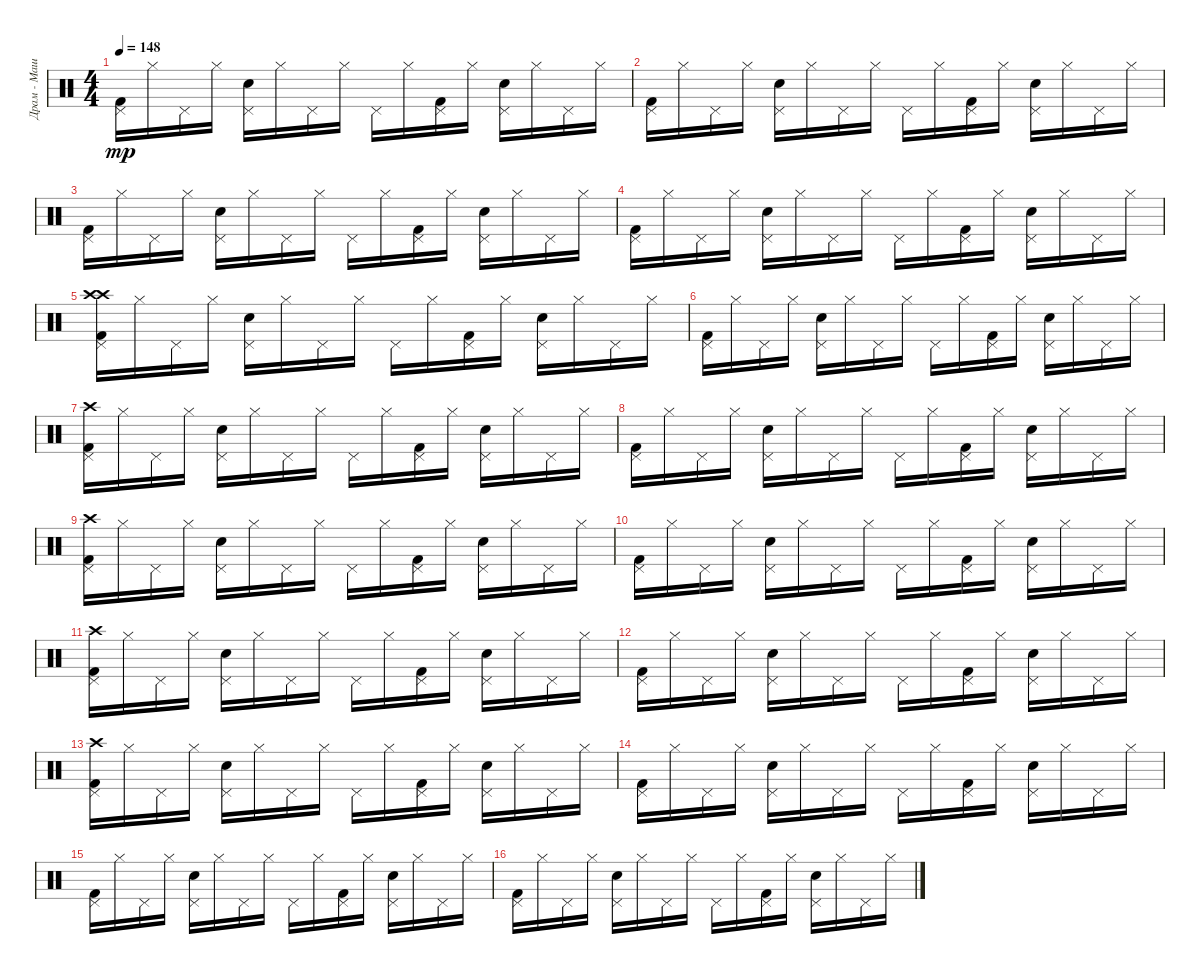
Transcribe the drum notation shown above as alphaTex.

\track ("Драм - Машина 2" "Драм - Маш") {instrument percussion}
\staff {score}
\articulation defaults
\ts (4 4)
\tempo 148
\clef neutral
\ks c
("Kick (hit) 2" "Pedal Hi-Hat (hit)").16{dy mp} "Hi-Hat (closed)".16 "Pedal Hi-Hat (hit)".16 "Hi-Hat (closed)".16 ("Snare (hit) 2" "Pedal Hi-Hat (hit)").16 "Hi-Hat (closed)".16 "Pedal Hi-Hat (hit)".16 "Hi-Hat (closed)".16 "Pedal Hi-Hat (hit)".16 "Hi-Hat (closed)".16 ("Kick (hit) 2" "Pedal Hi-Hat (hit)").16 "Hi-Hat (closed)".16 ("Snare (hit) 2" "Pedal Hi-Hat (hit)").16 "Hi-Hat (closed)".16 "Pedal Hi-Hat (hit)".16 "Hi-Hat (closed)".16 |
("Kick (hit) 2" "Pedal Hi-Hat (hit)").16 "Hi-Hat (closed)".16 "Pedal Hi-Hat (hit)".16 "Hi-Hat (closed)".16 ("Snare (hit) 2" "Pedal Hi-Hat (hit)").16 "Hi-Hat (closed)".16 "Pedal Hi-Hat (hit)".16 "Hi-Hat (closed)".16 "Pedal Hi-Hat (hit)".16 "Hi-Hat (closed)".16 ("Kick (hit) 2" "Pedal Hi-Hat (hit)").16 "Hi-Hat (closed)".16 ("Snare (hit) 2" "Pedal Hi-Hat (hit)").16 "Hi-Hat (closed)".16 "Pedal Hi-Hat (hit)".16 "Hi-Hat (closed)".16 |
("Kick (hit) 2" "Pedal Hi-Hat (hit)").16 "Hi-Hat (closed)".16 "Pedal Hi-Hat (hit)".16 "Hi-Hat (closed)".16 ("Snare (hit) 2" "Pedal Hi-Hat (hit)").16 "Hi-Hat (closed)".16 "Pedal Hi-Hat (hit)".16 "Hi-Hat (closed)".16 "Pedal Hi-Hat (hit)".16 "Hi-Hat (closed)".16 ("Kick (hit) 2" "Pedal Hi-Hat (hit)").16 "Hi-Hat (closed)".16 ("Snare (hit) 2" "Pedal Hi-Hat (hit)").16 "Hi-Hat (closed)".16 "Pedal Hi-Hat (hit)".16 "Hi-Hat (closed)".16 |
("Kick (hit) 2" "Pedal Hi-Hat (hit)").16 "Hi-Hat (closed)".16 "Pedal Hi-Hat (hit)".16 "Hi-Hat (closed)".16 ("Snare (hit) 2" "Pedal Hi-Hat (hit)").16 "Hi-Hat (closed)".16 "Pedal Hi-Hat (hit)".16 "Hi-Hat (closed)".16 "Pedal Hi-Hat (hit)".16 "Hi-Hat (closed)".16 ("Kick (hit) 2" "Pedal Hi-Hat (hit)").16 "Hi-Hat (closed)".16 ("Snare (hit) 2" "Pedal Hi-Hat (hit)").16 "Hi-Hat (closed)".16 "Pedal Hi-Hat (hit)".16 "Hi-Hat (closed)".16 |
("Crash high (hit)" "Kick (hit) 2" "Crash high (hit)" "Pedal Hi-Hat (hit)").16 "Hi-Hat (closed)".16 "Pedal Hi-Hat (hit)".16 "Hi-Hat (closed)".16 ("Snare (hit) 2" "Pedal Hi-Hat (hit)").16 "Hi-Hat (closed)".16 "Pedal Hi-Hat (hit)".16 "Hi-Hat (closed)".16 "Pedal Hi-Hat (hit)".16 "Hi-Hat (closed)".16 ("Kick (hit) 2" "Pedal Hi-Hat (hit)").16 "Hi-Hat (closed)".16 ("Snare (hit) 2" "Pedal Hi-Hat (hit)").16 "Hi-Hat (closed)".16 "Pedal Hi-Hat (hit)".16 "Hi-Hat (closed)".16 |
("Kick (hit) 2" "Pedal Hi-Hat (hit)").16 "Hi-Hat (closed)".16 "Pedal Hi-Hat (hit)".16 "Hi-Hat (closed)".16 ("Snare (hit) 2" "Pedal Hi-Hat (hit)").16 "Hi-Hat (closed)".16 "Pedal Hi-Hat (hit)".16 "Hi-Hat (closed)".16 "Pedal Hi-Hat (hit)".16 "Hi-Hat (closed)".16 ("Kick (hit) 2" "Pedal Hi-Hat (hit)").16 "Hi-Hat (closed)".16 ("Snare (hit) 2" "Pedal Hi-Hat (hit)").16 "Hi-Hat (closed)".16 "Pedal Hi-Hat (hit)".16 "Hi-Hat (closed)".16 |
("Kick (hit) 2" "Crash high (hit)" "Pedal Hi-Hat (hit)").16 "Hi-Hat (closed)".16 "Pedal Hi-Hat (hit)".16 "Hi-Hat (closed)".16 ("Snare (hit) 2" "Pedal Hi-Hat (hit)").16 "Hi-Hat (closed)".16 "Pedal Hi-Hat (hit)".16 "Hi-Hat (closed)".16 "Pedal Hi-Hat (hit)".16 "Hi-Hat (closed)".16 ("Kick (hit) 2" "Pedal Hi-Hat (hit)").16 "Hi-Hat (closed)".16 ("Snare (hit) 2" "Pedal Hi-Hat (hit)").16 "Hi-Hat (closed)".16 "Pedal Hi-Hat (hit)".16 "Hi-Hat (closed)".16 |
("Kick (hit) 2" "Pedal Hi-Hat (hit)").16 "Hi-Hat (closed)".16 "Pedal Hi-Hat (hit)".16 "Hi-Hat (closed)".16 ("Snare (hit) 2" "Pedal Hi-Hat (hit)").16 "Hi-Hat (closed)".16 "Pedal Hi-Hat (hit)".16 "Hi-Hat (closed)".16 "Pedal Hi-Hat (hit)".16 "Hi-Hat (closed)".16 ("Kick (hit) 2" "Pedal Hi-Hat (hit)").16 "Hi-Hat (closed)".16 ("Snare (hit) 2" "Pedal Hi-Hat (hit)").16 "Hi-Hat (closed)".16 "Pedal Hi-Hat (hit)".16 "Hi-Hat (closed)".16 |
("Crash high (hit)" "Kick (hit) 2" "Pedal Hi-Hat (hit)").16 "Hi-Hat (closed)".16 "Pedal Hi-Hat (hit)".16 "Hi-Hat (closed)".16 ("Snare (hit) 2" "Pedal Hi-Hat (hit)").16 "Hi-Hat (closed)".16 "Pedal Hi-Hat (hit)".16 "Hi-Hat (closed)".16 "Pedal Hi-Hat (hit)".16 "Hi-Hat (closed)".16 ("Kick (hit) 2" "Pedal Hi-Hat (hit)").16 "Hi-Hat (closed)".16 ("Snare (hit) 2" "Pedal Hi-Hat (hit)").16 "Hi-Hat (closed)".16 "Pedal Hi-Hat (hit)".16 "Hi-Hat (closed)".16 |
("Kick (hit) 2" "Pedal Hi-Hat (hit)").16 "Hi-Hat (closed)".16 "Pedal Hi-Hat (hit)".16 "Hi-Hat (closed)".16 ("Snare (hit) 2" "Pedal Hi-Hat (hit)").16 "Hi-Hat (closed)".16 "Pedal Hi-Hat (hit)".16 "Hi-Hat (closed)".16 "Pedal Hi-Hat (hit)".16 "Hi-Hat (closed)".16 ("Kick (hit) 2" "Pedal Hi-Hat (hit)").16 "Hi-Hat (closed)".16 ("Snare (hit) 2" "Pedal Hi-Hat (hit)").16 "Hi-Hat (closed)".16 "Pedal Hi-Hat (hit)".16 "Hi-Hat (closed)".16 |
("Crash high (hit)" "Kick (hit) 2" "Pedal Hi-Hat (hit)").16 "Hi-Hat (closed)".16 "Pedal Hi-Hat (hit)".16 "Hi-Hat (closed)".16 ("Snare (hit) 2" "Pedal Hi-Hat (hit)").16 "Hi-Hat (closed)".16 "Pedal Hi-Hat (hit)".16 "Hi-Hat (closed)".16 "Pedal Hi-Hat (hit)".16 "Hi-Hat (closed)".16 ("Kick (hit) 2" "Pedal Hi-Hat (hit)").16 "Hi-Hat (closed)".16 ("Snare (hit) 2" "Pedal Hi-Hat (hit)").16 "Hi-Hat (closed)".16 "Pedal Hi-Hat (hit)".16 "Hi-Hat (closed)".16 |
("Kick (hit) 2" "Pedal Hi-Hat (hit)").16 "Hi-Hat (closed)".16 "Pedal Hi-Hat (hit)".16 "Hi-Hat (closed)".16 ("Snare (hit) 2" "Pedal Hi-Hat (hit)").16 "Hi-Hat (closed)".16 "Pedal Hi-Hat (hit)".16 "Hi-Hat (closed)".16 "Pedal Hi-Hat (hit)".16 "Hi-Hat (closed)".16 ("Kick (hit) 2" "Pedal Hi-Hat (hit)").16 "Hi-Hat (closed)".16 ("Snare (hit) 2" "Pedal Hi-Hat (hit)").16 "Hi-Hat (closed)".16 "Pedal Hi-Hat (hit)".16 "Hi-Hat (closed)".16 |
("Kick (hit) 2" "Crash high (hit)" "Pedal Hi-Hat (hit)").16 "Hi-Hat (closed)".16 "Pedal Hi-Hat (hit)".16 "Hi-Hat (closed)".16 ("Snare (hit) 2" "Pedal Hi-Hat (hit)").16 "Hi-Hat (closed)".16 "Pedal Hi-Hat (hit)".16 "Hi-Hat (closed)".16 "Pedal Hi-Hat (hit)".16 "Hi-Hat (closed)".16 ("Kick (hit) 2" "Pedal Hi-Hat (hit)").16 "Hi-Hat (closed)".16 ("Snare (hit) 2" "Pedal Hi-Hat (hit)").16 "Hi-Hat (closed)".16 "Pedal Hi-Hat (hit)".16 "Hi-Hat (closed)".16 |
("Kick (hit) 2" "Pedal Hi-Hat (hit)").16 "Hi-Hat (closed)".16 "Pedal Hi-Hat (hit)".16 "Hi-Hat (closed)".16 ("Snare (hit) 2" "Pedal Hi-Hat (hit)").16 "Hi-Hat (closed)".16 "Pedal Hi-Hat (hit)".16 "Hi-Hat (closed)".16 "Pedal Hi-Hat (hit)".16 "Hi-Hat (closed)".16 ("Kick (hit) 2" "Pedal Hi-Hat (hit)").16 "Hi-Hat (closed)".16 ("Snare (hit) 2" "Pedal Hi-Hat (hit)").16 "Hi-Hat (closed)".16 "Pedal Hi-Hat (hit)".16 "Hi-Hat (closed)".16 |
("Kick (hit) 2" "Pedal Hi-Hat (hit)").16 "Hi-Hat (closed)".16 "Pedal Hi-Hat (hit)".16 "Hi-Hat (closed)".16 ("Snare (hit) 2" "Pedal Hi-Hat (hit)").16 "Hi-Hat (closed)".16 "Pedal Hi-Hat (hit)".16 "Hi-Hat (closed)".16 "Pedal Hi-Hat (hit)".16 "Hi-Hat (closed)".16 ("Kick (hit) 2" "Pedal Hi-Hat (hit)").16 "Hi-Hat (closed)".16 ("Snare (hit) 2" "Pedal Hi-Hat (hit)").16 "Hi-Hat (closed)".16 "Pedal Hi-Hat (hit)".16 "Hi-Hat (closed)".16 |
("Kick (hit) 2" "Pedal Hi-Hat (hit)").16 "Hi-Hat (closed)".16 "Pedal Hi-Hat (hit)".16 "Hi-Hat (closed)".16 ("Snare (hit) 2" "Pedal Hi-Hat (hit)").16 "Hi-Hat (closed)".16 "Pedal Hi-Hat (hit)".16 "Hi-Hat (closed)".16 "Pedal Hi-Hat (hit)".16 "Hi-Hat (closed)".16 ("Kick (hit) 2" "Pedal Hi-Hat (hit)").16 "Hi-Hat (closed)".16 ("Snare (hit) 2" "Pedal Hi-Hat (hit)").16 "Hi-Hat (closed)".16 "Pedal Hi-Hat (hit)".16 "Hi-Hat (closed)".16
